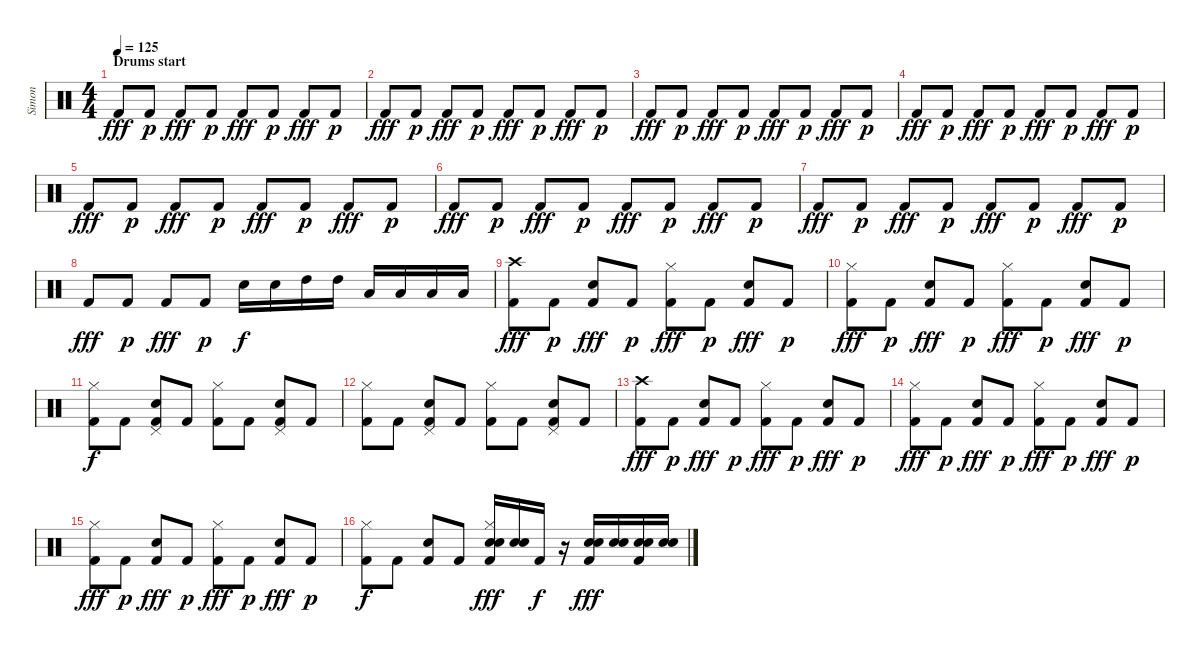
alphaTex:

\track ("Simon" "Simon") {instrument percussion}
\staff {score}
\articulation defaults
\ts (4 4)
\section ("" "Drums start")
\tempo 125
\clef neutral
\ks c "Kick (hit) 2".8{dy fff} "Kick (hit) 2".8{dy p} "Kick (hit) 2".8{dy fff} "Kick (hit) 2".8{dy p} "Kick (hit) 2".8{dy fff} "Kick (hit) 2".8{dy p} "Kick (hit) 2".8{dy fff} "Kick (hit) 2".8{dy p}
|
"Kick (hit) 2".8{dy fff} "Kick (hit) 2".8{dy p} "Kick (hit) 2".8{dy fff} "Kick (hit) 2".8{dy p} "Kick (hit) 2".8{dy fff} "Kick (hit) 2".8{dy p} "Kick (hit) 2".8{dy fff} "Kick (hit) 2".8{dy p} |
"Kick (hit) 2".8{dy fff} "Kick (hit) 2".8{dy p} "Kick (hit) 2".8{dy fff} "Kick (hit) 2".8{dy p} "Kick (hit) 2".8{dy fff} "Kick (hit) 2".8{dy p} "Kick (hit) 2".8{dy fff} "Kick (hit) 2".8{dy p} |
"Kick (hit) 2".8{dy fff} "Kick (hit) 2".8{dy p} "Kick (hit) 2".8{dy fff} "Kick (hit) 2".8{dy p} "Kick (hit) 2".8{dy fff} "Kick (hit) 2".8{dy p} "Kick (hit) 2".8{dy fff} "Kick (hit) 2".8{dy p} |
"Kick (hit) 2".8{dy fff} "Kick (hit) 2".8{dy p} "Kick (hit) 2".8{dy fff} "Kick (hit) 2".8{dy p} "Kick (hit) 2".8{dy fff} "Kick (hit) 2".8{dy p} "Kick (hit) 2".8{dy fff} "Kick (hit) 2".8{dy p} |
"Kick (hit) 2".8{dy fff} "Kick (hit) 2".8{dy p} "Kick (hit) 2".8{dy fff} "Kick (hit) 2".8{dy p} "Kick (hit) 2".8{dy fff} "Kick (hit) 2".8{dy p} "Kick (hit) 2".8{dy fff} "Kick (hit) 2".8{dy p} |
"Kick (hit) 2".8{dy fff} "Kick (hit) 2".8{dy p} "Kick (hit) 2".8{dy fff} "Kick (hit) 2".8{dy p} "Kick (hit) 2".8{dy fff} "Kick (hit) 2".8{dy p} "Kick (hit) 2".8{dy fff} "Kick (hit) 2".8{dy p} |
"Kick (hit) 2".8{dy fff} "Kick (hit) 2".8{dy p} "Kick (hit) 2".8{dy fff} "Kick (hit) 2".8{dy p} "Snare (hit) 2".16{dy f} "Snare (hit) 2".16 "High Tom (hit)".16 "High Tom (hit)".16 "Low Tom (hit)".16 "Low Tom (hit)".16 "Low Floor Tom (hit)".16 "Low Floor Tom (hit)".16 |
("Crash high (hit)" "Kick (hit) 2").8{dy fff} "Kick (hit) 2".8{dy p} ("Snare (hit) 2" "Kick (hit) 2").8{dy fff} "Kick (hit) 2".8{dy p} ("Hi-Hat (closed)" "Kick (hit) 2").8{dy fff} "Kick (hit) 2".8{dy p} ("Snare (hit) 2" "Kick (hit) 2").8{dy fff} "Kick (hit) 2".8{dy p} |
("Hi-Hat (closed)" "Kick (hit) 2").8{dy fff} "Kick (hit) 2".8{dy p} ("Snare (hit) 2" "Kick (hit) 2").8{dy fff} "Kick (hit) 2".8{dy p} ("Hi-Hat (closed)" "Kick (hit) 2").8{dy fff} "Kick (hit) 2".8{dy p} ("Snare (hit) 2" "Kick (hit) 2").8{dy fff} "Kick (hit) 2".8{dy p} |
("Hi-Hat (closed)" "Kick (hit) 2").8{dy f} "Kick (hit) 2".8 ("Pedal Hi-Hat (hit)" "Snare (hit) 2" "Kick (hit) 2").8 "Kick (hit) 2".8 ("Hi-Hat (closed)" "Kick (hit) 2").8 "Kick (hit) 2".8 ("Pedal Hi-Hat (hit)" "Snare (hit) 2" "Kick (hit) 2").8 "Kick (hit) 2".8 |
("Hi-Hat (closed)" "Kick (hit) 2").8 "Kick (hit) 2".8 ("Pedal Hi-Hat (hit)" "Snare (hit) 2" "Kick (hit) 2").8 "Kick (hit) 2".8 ("Hi-Hat (closed)" "Kick (hit) 2").8 "Kick (hit) 2".8 ("Pedal Hi-Hat (hit)" "Snare (hit) 2" "Kick (hit) 2").8 "Kick (hit) 2".8 |
("Crash high (hit)" "Kick (hit) 2").8{dy fff} "Kick (hit) 2".8{dy p} ("Snare (hit) 2" "Kick (hit) 2").8{dy fff} "Kick (hit) 2".8{dy p} ("Hi-Hat (closed)" "Kick (hit) 2").8{dy fff} "Kick (hit) 2".8{dy p} ("Snare (hit) 2" "Kick (hit) 2").8{dy fff} "Kick (hit) 2".8{dy p} |
("Hi-Hat (closed)" "Kick (hit) 2").8{dy fff} "Kick (hit) 2".8{dy p} ("Snare (hit) 2" "Kick (hit) 2").8{dy fff} "Kick (hit) 2".8{dy p} ("Hi-Hat (closed)" "Kick (hit) 2").8{dy fff} "Kick (hit) 2".8{dy p} ("Snare (hit) 2" "Kick (hit) 2").8{dy fff} "Kick (hit) 2".8{dy p} |
("Hi-Hat (closed)" "Kick (hit) 2").8{dy fff} "Kick (hit) 2".8{dy p} ("Snare (hit) 2" "Kick (hit) 2").8{dy fff} "Kick (hit) 2".8{dy p} ("Hi-Hat (closed)" "Kick (hit) 2").8{dy fff} "Kick (hit) 2".8{dy p} ("Snare (hit) 2" "Kick (hit) 2").8{dy fff} "Kick (hit) 2".8{dy p} |
("Hi-Hat (closed)" "Kick (hit) 2").8{dy f} "Kick (hit) 2".8 ("Snare (hit) 2" "Kick (hit) 2").8 "Kick (hit) 2".8 ("Hi-Hat (closed)" "Electric Snare (hit)" "Snare (hit) 2" "Kick (hit) 2").16{dy fff} ("Electric Snare (hit)" "Snare (hit) 2").16 "Kick (hit) 2".16{dy f} r.16 ("Electric Snare (hit)" "Snare (hit) 2" "Kick (hit) 2").16{dy fff} ("Electric Snare (hit)" "Snare (hit) 2").16 ("Electric Snare (hit)" "Snare (hit) 2" "Kick (hit) 2").16 ("Electric Snare (hit)" "Snare (hit) 2").16
